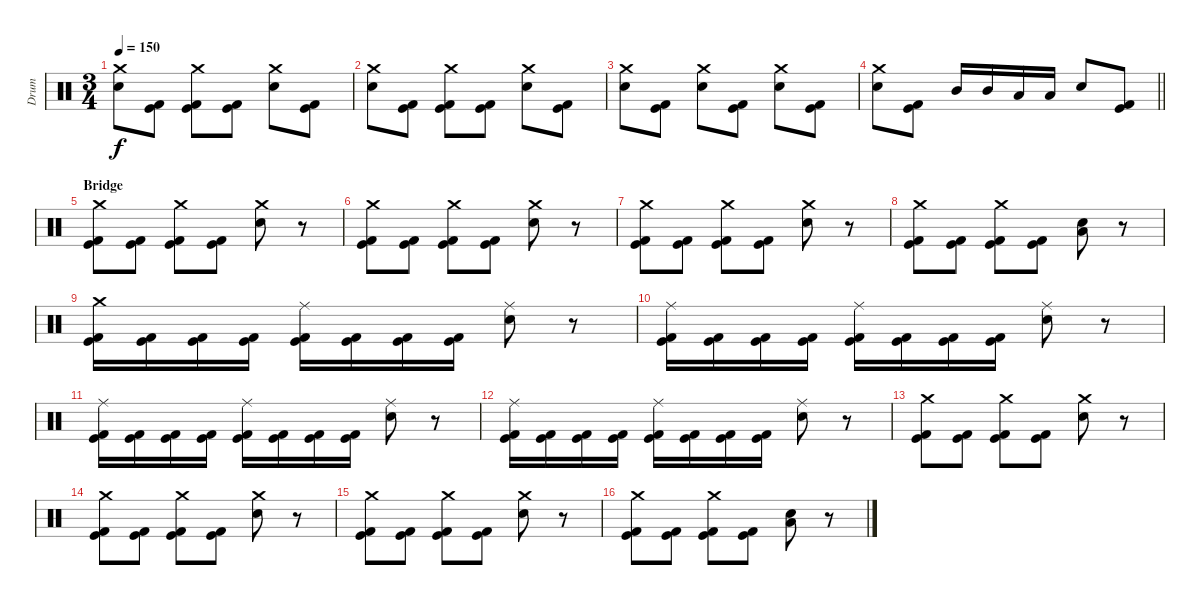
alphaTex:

\track ("Drum" "Drum") {instrument percussion}
\staff {score}
\articulation defaults
\ts (3 4)
\tempo 150
\clef neutral
\ks c
("Crash medium (hit)" "Electric Snare (hit)").8{dy f} ("Kick (hit)" "Kick (hit) 2").8 ("Crash medium (hit)" "Kick (hit)" "Kick (hit) 2").8 ("Kick (hit)" "Kick (hit) 2").8 ("Crash medium (hit)" "Electric Snare (hit)").8 ("Kick (hit)" "Kick (hit) 2").8 |
("Crash medium (hit)" "Electric Snare (hit)").8 ("Kick (hit)" "Kick (hit) 2").8 ("Crash medium (hit)" "Kick (hit)" "Kick (hit) 2").8 ("Kick (hit)" "Kick (hit) 2").8 ("Crash medium (hit)" "Electric Snare (hit)").8 ("Kick (hit)" "Kick (hit) 2").8 |
("Crash medium (hit)" "Electric Snare (hit)").8 ("Kick (hit)" "Kick (hit) 2").8 ("Crash medium (hit)" "Electric Snare (hit)").8 ("Kick (hit)" "Kick (hit) 2").8 ("Crash medium (hit)" "Electric Snare (hit)").8 ("Kick (hit)" "Kick (hit) 2").8 |
\barLineRight lightlight
("Crash medium (hit)" "Electric Snare (hit)").8 ("Kick (hit)" "Kick (hit) 2").8 "Mid Tom (hit)".16 "Mid Tom (hit)".16 "Low Tom (hit)".16 "Low Tom (hit)".16 "Electric Snare (hit)".8 ("Kick (hit)" "Kick (hit) 2").8 |
\section ("" "Bridge")
("Crash medium (hit)" "Kick (hit)" "Kick (hit) 2").8 ("Kick (hit)" "Kick (hit) 2").8 ("Crash medium (hit)" "Kick (hit)" "Kick (hit) 2").8 ("Kick (hit)" "Kick (hit) 2").8 ("Crash medium (hit)" "Electric Snare (hit)").8 r.8 |
("Crash medium (hit)" "Kick (hit)" "Kick (hit) 2").8 ("Kick (hit)" "Kick (hit) 2").8 ("Crash medium (hit)" "Kick (hit)" "Kick (hit) 2").8 ("Kick (hit)" "Kick (hit) 2").8 ("Crash medium (hit)" "Electric Snare (hit)").8 r.8 |
("Crash medium (hit)" "Kick (hit)" "Kick (hit) 2").8 ("Kick (hit)" "Kick (hit) 2").8 ("Crash medium (hit)" "Kick (hit)" "Kick (hit) 2").8 ("Kick (hit)" "Kick (hit) 2").8 ("Crash medium (hit)" "Electric Snare (hit)").8 r.8 |
("Crash medium (hit)" "Kick (hit)" "Kick (hit) 2").8 ("Kick (hit)" "Kick (hit) 2").8 ("Crash medium (hit)" "Kick (hit)" "Kick (hit) 2").8 ("Kick (hit)" "Kick (hit) 2").8 ("Low Floor Tom (hit)" "Electric Snare (hit)").8 r.8 |
("Crash medium (hit)" "Kick (hit)" "Kick (hit) 2").16 ("Kick (hit)" "Kick (hit) 2").16 ("Kick (hit)" "Kick (hit) 2").16 ("Kick (hit)" "Kick (hit) 2").16 ("Ride (middle)" "Kick (hit)" "Kick (hit) 2").16 ("Kick (hit)" "Kick (hit) 2").16 ("Kick (hit)" "Kick (hit) 2").16 ("Kick (hit)" "Kick (hit) 2").16 ("Ride (middle)" "Electric Snare (hit)").8 r.8 |
("Ride (middle)" "Kick (hit)" "Kick (hit) 2").16 ("Kick (hit)" "Kick (hit) 2").16 ("Kick (hit)" "Kick (hit) 2").16 ("Kick (hit)" "Kick (hit) 2").16 ("Ride (middle)" "Kick (hit)" "Kick (hit) 2").16 ("Kick (hit)" "Kick (hit) 2").16 ("Kick (hit)" "Kick (hit) 2").16 ("Kick (hit)" "Kick (hit) 2").16 ("Ride (middle)" "Electric Snare (hit)").8 r.8 |
("Ride (middle)" "Kick (hit)" "Kick (hit) 2").16 ("Kick (hit)" "Kick (hit) 2").16 ("Kick (hit)" "Kick (hit) 2").16 ("Kick (hit)" "Kick (hit) 2").16 ("Ride (middle)" "Kick (hit)" "Kick (hit) 2").16 ("Kick (hit)" "Kick (hit) 2").16 ("Kick (hit)" "Kick (hit) 2").16 ("Kick (hit)" "Kick (hit) 2").16 ("Ride (middle)" "Electric Snare (hit)").8 r.8 |
("Ride (middle)" "Kick (hit)" "Kick (hit) 2").16 ("Kick (hit)" "Kick (hit) 2").16 ("Kick (hit)" "Kick (hit) 2").16 ("Kick (hit)" "Kick (hit) 2").16 ("Ride (middle)" "Kick (hit)" "Kick (hit) 2").16 ("Kick (hit)" "Kick (hit) 2").16 ("Kick (hit)" "Kick (hit) 2").16 ("Kick (hit)" "Kick (hit) 2").16 ("Ride (middle)" "Electric Snare (hit)").8 r.8 |
("Crash medium (hit)" "Kick (hit)" "Kick (hit) 2").8 ("Kick (hit)" "Kick (hit) 2").8 ("Crash medium (hit)" "Kick (hit)" "Kick (hit) 2").8 ("Kick (hit)" "Kick (hit) 2").8 ("Crash medium (hit)" "Electric Snare (hit)").8 r.8 |
("Crash medium (hit)" "Kick (hit)" "Kick (hit) 2").8 ("Kick (hit)" "Kick (hit) 2").8 ("Crash medium (hit)" "Kick (hit)" "Kick (hit) 2").8 ("Kick (hit)" "Kick (hit) 2").8 ("Crash medium (hit)" "Electric Snare (hit)").8 r.8 |
("Crash medium (hit)" "Kick (hit)" "Kick (hit) 2").8 ("Kick (hit)" "Kick (hit) 2").8 ("Crash medium (hit)" "Kick (hit)" "Kick (hit) 2").8 ("Kick (hit)" "Kick (hit) 2").8 ("Crash medium (hit)" "Electric Snare (hit)").8 r.8 |
("Crash medium (hit)" "Kick (hit)" "Kick (hit) 2").8 ("Kick (hit)" "Kick (hit) 2").8 ("Crash medium (hit)" "Kick (hit)" "Kick (hit) 2").8 ("Kick (hit)" "Kick (hit) 2").8 ("Low Floor Tom (hit)" "Electric Snare (hit)").8 r.8
